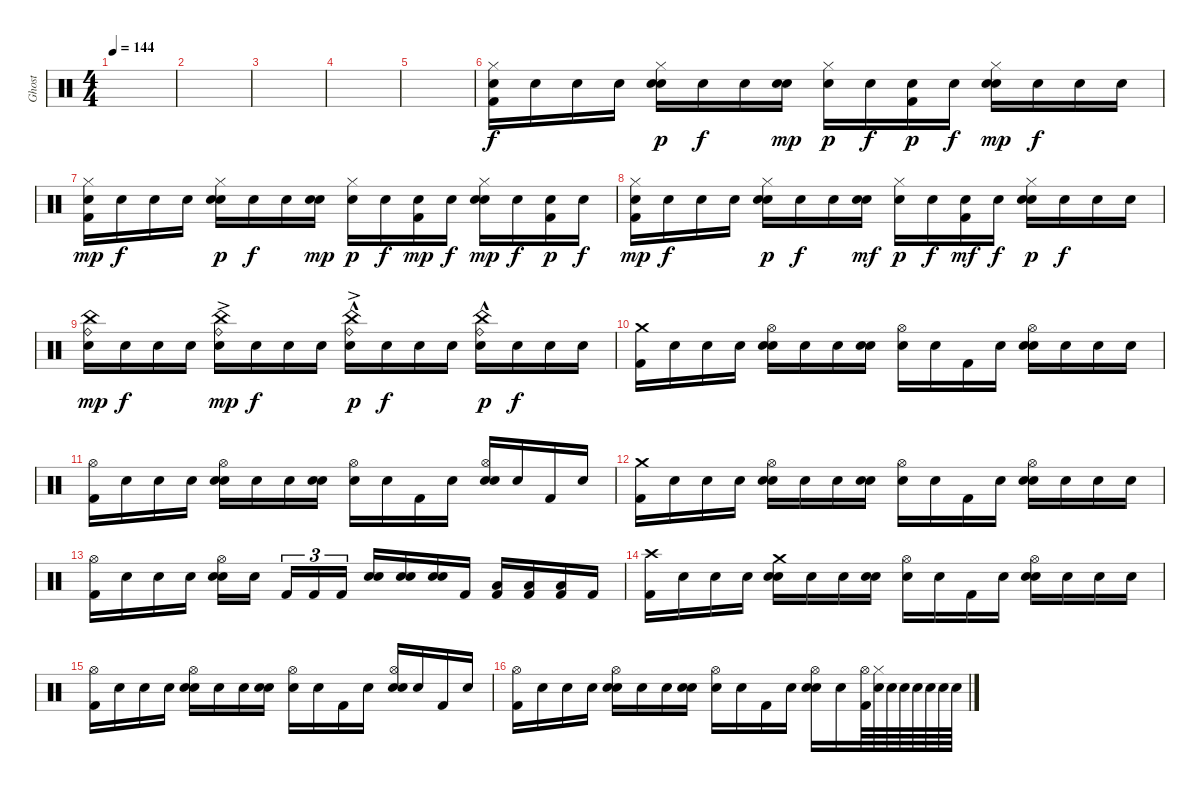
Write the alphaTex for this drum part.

\track ("Ghost" "Ghost") {instrument percussion}
\staff {score}
\articulation defaults
\ts (4 4)
\tempo 144
\clef neutral
\ks c
|
|
|
|
|
("Hi-Hat (closed)" "Kick (hit) 2" "Snare (hit)").16 "Snare (hit)".16{dy f} "Snare (hit)".16 "Snare (hit)".16 ("Hi-Hat (closed)" "Snare (hit) 2" "Snare (hit)").16{dy p} "Snare (hit)".16{dy f} "Snare (hit)".16 ("Snare (hit) 2" "Snare (hit)").16{dy mp} ("Hi-Hat (closed)" "Snare (hit)").16{dy p} "Snare (hit)".16{dy f} ("Kick (hit) 2" "Snare (hit)").16{dy p} "Snare (hit)".16{dy f} ("Hi-Hat (closed)" "Snare (hit) 2" "Snare (hit)").16{dy mp} "Snare (hit)".16{dy f} "Snare (hit)".16 "Snare (hit)".16 |
("Hi-Hat (closed)" "Kick (hit) 2" "Snare (hit)").16{dy mp} "Snare (hit)".16{dy f} "Snare (hit)".16 "Snare (hit)".16 ("Hi-Hat (closed)" "Snare (hit) 2" "Snare (hit)").16{dy p} "Snare (hit)".16{dy f} "Snare (hit)".16 ("Snare (hit) 2" "Snare (hit)").16{dy mp} ("Hi-Hat (closed)" "Snare (hit)").16{dy p} "Snare (hit)".16{dy f} ("Kick (hit) 2" "Snare (hit)").16{dy mp} "Snare (hit)".16{dy f} ("Hi-Hat (closed)" "Snare (hit) 2" "Snare (hit)").16{dy mp} "Snare (hit)".16{dy f} ("Kick (hit) 2" "Snare (hit)").16{dy p} "Snare (hit)".16{dy f} |
("Hi-Hat (closed)" "Kick (hit) 2" "Snare (hit)").16{dy mp} "Snare (hit)".16{dy f} "Snare (hit)".16 "Snare (hit)".16 ("Hi-Hat (closed)" "Snare (hit) 2" "Snare (hit)").16{dy p} "Snare (hit)".16{dy f} "Snare (hit)".16 ("Snare (hit) 2" "Snare (hit)").16{dy mf} ("Hi-Hat (closed)" "Snare (hit)").16{dy p} "Snare (hit)".16{dy f} ("Kick (hit) 2" "Snare (hit)").16{dy mf} "Snare (hit)".16{dy f} ("Hi-Hat (closed)" "Snare (hit) 2" "Snare (hit)").16{dy p} "Snare (hit)".16{dy f} "Snare (hit)".16 "Snare (hit)".16 |
("Ride (bell)" "China (hit)" "Snare (hit)").16{dy mp} "Snare (hit)".16{dy f} "Snare (hit)".16 "Snare (hit)".16 ("Ride (bell)"{ac} "China (hit)"{ac} "Snare (hit)").16{dy mp} "Snare (hit)".16{dy f} "Snare (hit)".16 "Snare (hit)".16 ("Ride (bell)"{hac} "China (hit)"{ac} "Snare (hit)").16{dy p} "Snare (hit)".16{dy f} "Snare (hit)".16 "Snare (hit)".16 ("Ride (bell)"{hac} "China (hit)"{hac} "Snare (hit)").16{dy p} "Snare (hit)".16{dy f} "Snare (hit)".16 "Snare (hit)".16 |
("Crash medium (hit)" "Kick (hit) 2").16 "Snare (hit)".16 "Snare (hit)".16 "Snare (hit)".16 ("Hi-Hat (open)" "Electric Snare (hit)" "Snare (hit)").16 "Snare (hit)".16 "Snare (hit)".16 ("Electric Snare (hit)" "Snare (hit)").16 ("Hi-Hat (open)" "Snare (hit)").16 "Snare (hit)".16 "Kick (hit) 2".16 "Snare (hit)".16 ("Hi-Hat (open)" "Electric Snare (hit)" "Snare (hit)").16 "Snare (hit)".16 "Snare (hit)".16 "Snare (hit)".16 |
("Hi-Hat (open)" "Kick (hit) 2").16 "Snare (hit)".16 "Snare (hit)".16 "Snare (hit)".16 ("Hi-Hat (open)" "Electric Snare (hit)" "Snare (hit)").16 "Snare (hit)".16 "Snare (hit)".16 ("Electric Snare (hit)" "Snare (hit)").16 ("Hi-Hat (open)" "Snare (hit)").16 "Snare (hit)".16 "Kick (hit) 2".16 "Snare (hit)".16 ("Hi-Hat (open)" "Electric Snare (hit)" "Snare (hit)").16 "Snare (hit)".16 "Kick (hit) 2".16 "Snare (hit)".16 |
("Crash medium (hit)" "Kick (hit) 2").16 "Snare (hit)".16 "Snare (hit)".16 "Snare (hit)".16 ("Hi-Hat (open)" "Electric Snare (hit)" "Snare (hit)").16 "Snare (hit)".16 "Snare (hit)".16 ("Electric Snare (hit)" "Snare (hit)").16 ("Hi-Hat (open)" "Snare (hit)").16 "Snare (hit)".16 "Kick (hit) 2".16 "Snare (hit)".16 ("Hi-Hat (open)" "Electric Snare (hit)" "Snare (hit)").16 "Snare (hit)".16 "Snare (hit)".16 "Snare (hit)".16 |
("Hi-Hat (open)" "Kick (hit) 2").16 "Snare (hit)".16 "Snare (hit)".16 "Snare (hit)".16 ("Hi-Hat (open)" "Electric Snare (hit)" "Snare (hit)").16 "Snare (hit)".16{beam splitsecondary} "Kick (hit) 2".16{tu (3 2)} "Kick (hit) 2".16{tu (3 2)} "Kick (hit) 2".16{tu (3 2)} ("Electric Snare (hit)" "Snare (hit)").16 ("Electric Snare (hit)" "Snare (hit)").16 ("Electric Snare (hit)" "Snare (hit)").16 "Kick (hit) 2".16 ("Low Tom (hit)" "Kick (hit) 2").16 ("Low Tom (hit)" "Kick (hit) 2").16 ("Low Tom (hit)" "Kick (hit) 2").16 "Kick (hit) 2".16 |
("Crash high (hit)" "Kick (hit) 2").16 "Snare (hit)".16 "Snare (hit)".16 "Snare (hit)".16 ("Crash medium (hit)" "Electric Snare (hit)" "Snare (hit)").16 "Snare (hit)".16 "Snare (hit)".16 ("Electric Snare (hit)" "Snare (hit)").16 ("Hi-Hat (open)" "Snare (hit)").16 "Snare (hit)".16 "Kick (hit) 2".16 "Snare (hit)".16 ("Hi-Hat (open)" "Electric Snare (hit)" "Snare (hit)").16 "Snare (hit)".16 "Snare (hit)".16 "Snare (hit)".16 |
("Hi-Hat (open)" "Kick (hit) 2").16 "Snare (hit)".16 "Snare (hit)".16 "Snare (hit)".16 ("Hi-Hat (open)" "Electric Snare (hit)" "Snare (hit)").16 "Snare (hit)".16 "Snare (hit)".16 ("Electric Snare (hit)" "Snare (hit)").16 ("Hi-Hat (open)" "Snare (hit)").16 "Snare (hit)".16 "Kick (hit) 2".16 "Snare (hit)".16 ("Hi-Hat (open)" "Electric Snare (hit)" "Snare (hit)").16 "Snare (hit)".16 "Kick (hit) 2".16 "Snare (hit)".16 |
("Hi-Hat (open)" "Kick (hit) 2").16 "Snare (hit)".16 "Snare (hit)".16 "Snare (hit)".16 ("Hi-Hat (open)" "Electric Snare (hit)" "Snare (hit)").16 "Snare (hit)".16 "Snare (hit)".16 ("Electric Snare (hit)" "Snare (hit)").16 ("Hi-Hat (open)" "Snare (hit)").16 "Snare (hit)".16 "Kick (hit) 2".16 "Snare (hit)".16 ("Hi-Hat (open)" "Electric Snare (hit)" "Snare (hit)").16 "Snare (hit)".16 ("Hi-Hat (open)" "Kick (hit) 2").64 ("Hi-Hat (closed)" "Snare (hit)").64 "Snare (hit)".64 "Snare (hit)".64 "Snare (hit)".64 "Snare (hit)".64 "Snare (hit)".64 "Snare (hit)".64
